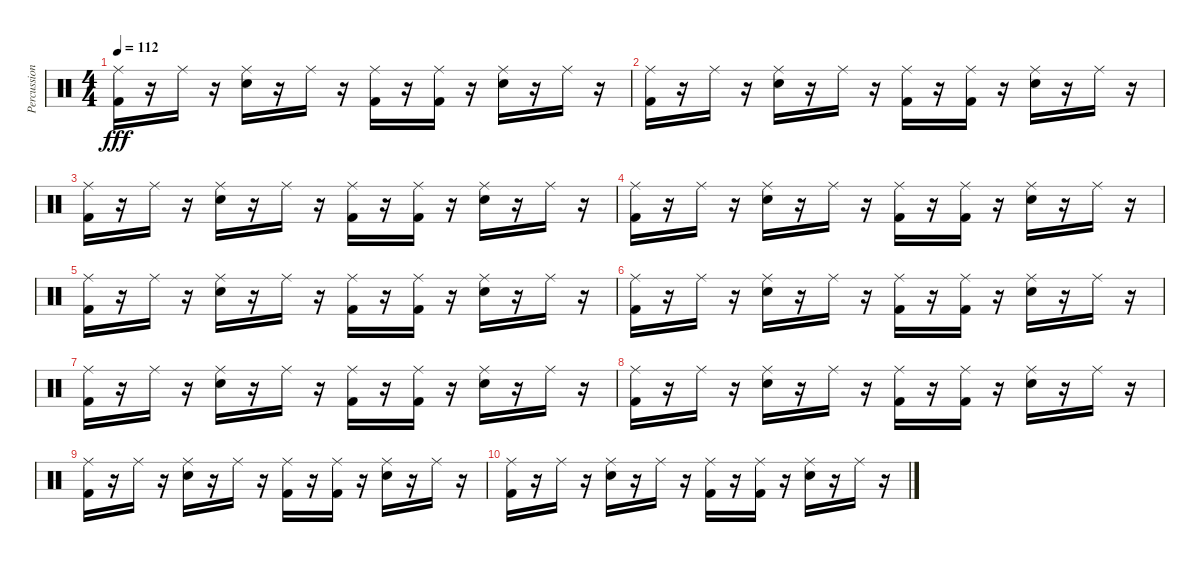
\track ("Percussions" "Percussion") {instrument percussion}
\staff {score}
\articulation defaults
\ts (4 4)
\tempo 112
\clef neutral
\ks c
("Ride (middle)" "Kick (hit) 2").16{dy fff} r.16 "Ride (middle)".16 r.16 ("Ride (middle)" "Electric Snare (hit)").16 r.16 "Ride (middle)".16 r.16 ("Ride (middle)" "Kick (hit) 2").16 r.16 ("Ride (middle)" "Kick (hit) 2").16 r.16 ("Ride (middle)" "Electric Snare (hit)").16 r.16 "Ride (middle)".16 r.16 |
("Ride (middle)" "Kick (hit) 2").16 r.16 "Ride (middle)".16 r.16 ("Ride (middle)" "Electric Snare (hit)").16 r.16 "Ride (middle)".16 r.16 ("Ride (middle)" "Kick (hit) 2").16 r.16 ("Ride (middle)" "Kick (hit) 2").16 r.16 ("Ride (middle)" "Electric Snare (hit)").16 r.16 "Ride (middle)".16 r.16 |
("Ride (middle)" "Kick (hit) 2").16 r.16 "Ride (middle)".16 r.16 ("Ride (middle)" "Electric Snare (hit)").16 r.16 "Ride (middle)".16 r.16 ("Ride (middle)" "Kick (hit) 2").16 r.16 ("Ride (middle)" "Kick (hit) 2").16 r.16 ("Ride (middle)" "Electric Snare (hit)").16 r.16 "Ride (middle)".16 r.16 |
("Ride (middle)" "Kick (hit) 2").16 r.16 "Ride (middle)".16 r.16 ("Ride (middle)" "Electric Snare (hit)").16 r.16 "Ride (middle)".16 r.16 ("Ride (middle)" "Kick (hit) 2").16 r.16 ("Ride (middle)" "Kick (hit) 2").16 r.16 ("Ride (middle)" "Electric Snare (hit)").16 r.16 "Ride (middle)".16 r.16 |
("Ride (middle)" "Kick (hit) 2").16 r.16 "Ride (middle)".16 r.16 ("Ride (middle)" "Electric Snare (hit)").16 r.16 "Ride (middle)".16 r.16 ("Ride (middle)" "Kick (hit) 2").16 r.16 ("Ride (middle)" "Kick (hit) 2").16 r.16 ("Ride (middle)" "Electric Snare (hit)").16 r.16 "Ride (middle)".16 r.16 |
("Ride (middle)" "Kick (hit) 2").16 r.16 "Ride (middle)".16 r.16 ("Ride (middle)" "Electric Snare (hit)").16 r.16 "Ride (middle)".16 r.16 ("Ride (middle)" "Kick (hit) 2").16 r.16 ("Ride (middle)" "Kick (hit) 2").16 r.16 ("Ride (middle)" "Electric Snare (hit)").16 r.16 "Ride (middle)".16 r.16 |
("Ride (middle)" "Kick (hit) 2").16 r.16 "Ride (middle)".16 r.16 ("Ride (middle)" "Electric Snare (hit)").16 r.16 "Ride (middle)".16 r.16 ("Ride (middle)" "Kick (hit) 2").16 r.16 ("Ride (middle)" "Kick (hit) 2").16 r.16 ("Ride (middle)" "Electric Snare (hit)").16 r.16 "Ride (middle)".16 r.16 |
("Ride (middle)" "Kick (hit) 2").16 r.16 "Ride (middle)".16 r.16 ("Ride (middle)" "Electric Snare (hit)").16 r.16 "Ride (middle)".16 r.16 ("Ride (middle)" "Kick (hit) 2").16 r.16 ("Ride (middle)" "Kick (hit) 2").16 r.16 ("Ride (middle)" "Electric Snare (hit)").16 r.16 "Ride (middle)".16 r.16 |
("Ride (middle)" "Kick (hit) 2").16 r.16 "Ride (middle)".16 r.16 ("Ride (middle)" "Electric Snare (hit)").16 r.16 "Ride (middle)".16 r.16 ("Ride (middle)" "Kick (hit) 2").16 r.16 ("Ride (middle)" "Kick (hit) 2").16 r.16 ("Ride (middle)" "Electric Snare (hit)").16 r.16 "Ride (middle)".16 r.16 |
("Ride (middle)" "Kick (hit) 2").16 r.16 "Ride (middle)".16 r.16 ("Ride (middle)" "Electric Snare (hit)").16 r.16 "Ride (middle)".16 r.16 ("Ride (middle)" "Kick (hit) 2").16 r.16 ("Ride (middle)" "Kick (hit) 2").16 r.16 ("Ride (middle)" "Electric Snare (hit)").16 r.16 "Ride (middle)".16 r.16
